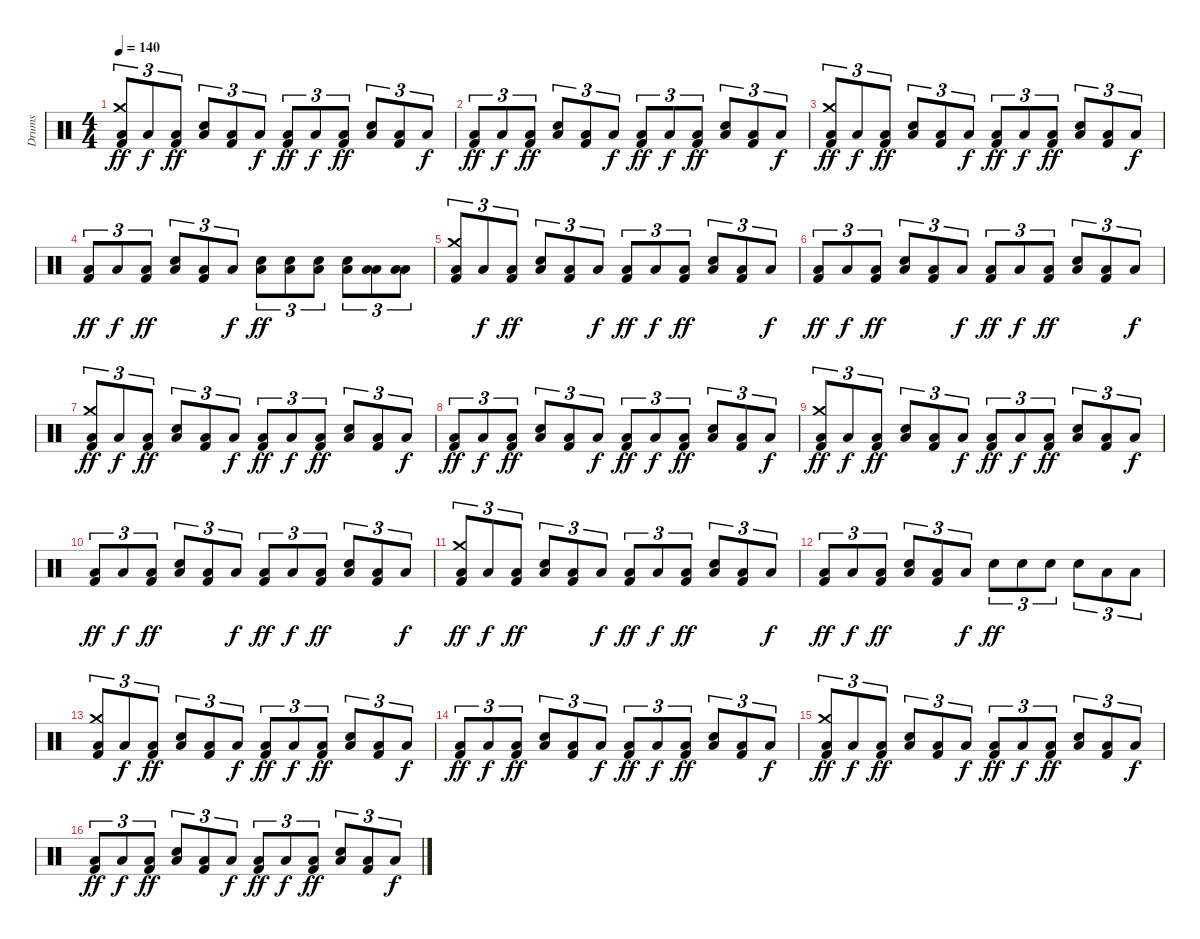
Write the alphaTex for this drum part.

\track ("Drums" "Drums") {instrument percussion}
\staff {score}
\articulation defaults
\ts (4 4)
\tempo 140
\clef neutral
\ks c
("Kick (hit) 2" "Crash medium (hit)" "Low Floor Tom (hit)").8{tu (3 2) dy ff} "Low Floor Tom (hit)".8{tu (3 2) dy f} ("Kick (hit) 2" "Low Floor Tom (hit)").8{tu (3 2) dy ff} ("Snare (hit) 2" "Low Floor Tom (hit)").8{tu (3 2)} ("Kick (hit) 2" "Low Floor Tom (hit)").8{tu (3 2)} "Low Floor Tom (hit)".8{tu (3 2) dy f} ("Kick (hit) 2" "Low Floor Tom (hit)").8{tu (3 2) dy ff} "Low Floor Tom (hit)".8{tu (3 2) dy f} ("Kick (hit) 2" "Low Floor Tom (hit)").8{tu (3 2) dy ff} ("Snare (hit) 2" "Low Floor Tom (hit)").8{tu (3 2)} ("Kick (hit) 2" "Low Floor Tom (hit)").8{tu (3 2)} "Low Floor Tom (hit)".8{tu (3 2) dy f} |
("Kick (hit) 2" "Low Floor Tom (hit)").8{tu (3 2) dy ff} "Low Floor Tom (hit)".8{tu (3 2) dy f} ("Kick (hit) 2" "Low Floor Tom (hit)").8{tu (3 2) dy ff} ("Snare (hit) 2" "Low Floor Tom (hit)").8{tu (3 2)} ("Kick (hit) 2" "Low Floor Tom (hit)").8{tu (3 2)} "Low Floor Tom (hit)".8{tu (3 2) dy f} ("Kick (hit) 2" "Low Floor Tom (hit)").8{tu (3 2) dy ff} "Low Floor Tom (hit)".8{tu (3 2) dy f} ("Kick (hit) 2" "Low Floor Tom (hit)").8{tu (3 2) dy ff} ("Snare (hit) 2" "Low Floor Tom (hit)").8{tu (3 2)} ("Kick (hit) 2" "Low Floor Tom (hit)").8{tu (3 2)} "Low Floor Tom (hit)".8{tu (3 2) dy f} |
("Kick (hit) 2" "Crash medium (hit)" "Low Floor Tom (hit)").8{tu (3 2) dy ff} "Low Floor Tom (hit)".8{tu (3 2) dy f} ("Kick (hit) 2" "Low Floor Tom (hit)").8{tu (3 2) dy ff} ("Snare (hit) 2" "Low Floor Tom (hit)").8{tu (3 2)} ("Kick (hit) 2" "Low Floor Tom (hit)").8{tu (3 2)} "Low Floor Tom (hit)".8{tu (3 2) dy f} ("Kick (hit) 2" "Low Floor Tom (hit)").8{tu (3 2) dy ff} "Low Floor Tom (hit)".8{tu (3 2) dy f} ("Kick (hit) 2" "Low Floor Tom (hit)").8{tu (3 2) dy ff} ("Snare (hit) 2" "Low Floor Tom (hit)").8{tu (3 2)} ("Kick (hit) 2" "Low Floor Tom (hit)").8{tu (3 2)} "Low Floor Tom (hit)".8{tu (3 2) dy f} |
("Kick (hit) 2" "Low Floor Tom (hit)").8{tu (3 2) dy ff} "Low Floor Tom (hit)".8{tu (3 2) dy f} ("Kick (hit) 2" "Low Floor Tom (hit)").8{tu (3 2) dy ff} ("Snare (hit) 2" "Low Floor Tom (hit)").8{tu (3 2)} ("Kick (hit) 2" "Low Floor Tom (hit)").8{tu (3 2)} "Low Floor Tom (hit)".8{tu (3 2) dy f} ("Snare (hit) 2" "Low Floor Tom (hit)").8{tu (3 2) dy ff} ("Snare (hit) 2" "Low Floor Tom (hit)").8{tu (3 2)} ("Snare (hit) 2" "Low Floor Tom (hit)").8{tu (3 2)} ("Snare (hit) 2" "Low Floor Tom (hit)").8{tu (3 2)} ("Low Tom (hit)" "Low Floor Tom (hit)").8{tu (3 2)} ("Low Floor Tom (hit)" "Low Floor Tom (hit)").8{tu (3 2)} |
("Kick (hit) 2" "Crash medium (hit)" "Low Floor Tom (hit)").8{tu (3 2)} "Low Floor Tom (hit)".8{tu (3 2) dy f} ("Kick (hit) 2" "Low Floor Tom (hit)").8{tu (3 2) dy ff} ("Snare (hit) 2" "Low Floor Tom (hit)").8{tu (3 2)} ("Kick (hit) 2" "Low Floor Tom (hit)").8{tu (3 2)} "Low Floor Tom (hit)".8{tu (3 2) dy f} ("Kick (hit) 2" "Low Floor Tom (hit)").8{tu (3 2) dy ff} "Low Floor Tom (hit)".8{tu (3 2) dy f} ("Kick (hit) 2" "Low Floor Tom (hit)").8{tu (3 2) dy ff} ("Snare (hit) 2" "Low Floor Tom (hit)").8{tu (3 2)} ("Kick (hit) 2" "Low Floor Tom (hit)").8{tu (3 2)} "Low Floor Tom (hit)".8{tu (3 2) dy f} |
("Kick (hit) 2" "Low Floor Tom (hit)").8{tu (3 2) dy ff} "Low Floor Tom (hit)".8{tu (3 2) dy f} ("Kick (hit) 2" "Low Floor Tom (hit)").8{tu (3 2) dy ff} ("Snare (hit) 2" "Low Floor Tom (hit)").8{tu (3 2)} ("Kick (hit) 2" "Low Floor Tom (hit)").8{tu (3 2)} "Low Floor Tom (hit)".8{tu (3 2) dy f} ("Kick (hit) 2" "Low Floor Tom (hit)").8{tu (3 2) dy ff} "Low Floor Tom (hit)".8{tu (3 2) dy f} ("Kick (hit) 2" "Low Floor Tom (hit)").8{tu (3 2) dy ff} ("Snare (hit) 2" "Low Floor Tom (hit)").8{tu (3 2)} ("Kick (hit) 2" "Low Floor Tom (hit)").8{tu (3 2)} "Low Floor Tom (hit)".8{tu (3 2) dy f} |
("Kick (hit) 2" "Crash medium (hit)" "Low Floor Tom (hit)").8{tu (3 2) dy ff} "Low Floor Tom (hit)".8{tu (3 2) dy f} ("Kick (hit) 2" "Low Floor Tom (hit)").8{tu (3 2) dy ff} ("Snare (hit) 2" "Low Floor Tom (hit)").8{tu (3 2)} ("Kick (hit) 2" "Low Floor Tom (hit)").8{tu (3 2)} "Low Floor Tom (hit)".8{tu (3 2) dy f} ("Kick (hit) 2" "Low Floor Tom (hit)").8{tu (3 2) dy ff} "Low Floor Tom (hit)".8{tu (3 2) dy f} ("Kick (hit) 2" "Low Floor Tom (hit)").8{tu (3 2) dy ff} ("Snare (hit) 2" "Low Floor Tom (hit)").8{tu (3 2)} ("Kick (hit) 2" "Low Floor Tom (hit)").8{tu (3 2)} "Low Floor Tom (hit)".8{tu (3 2) dy f} |
("Kick (hit) 2" "Low Floor Tom (hit)").8{tu (3 2) dy ff} "Low Floor Tom (hit)".8{tu (3 2) dy f} ("Kick (hit) 2" "Low Floor Tom (hit)").8{tu (3 2) dy ff} ("Snare (hit) 2" "Low Floor Tom (hit)").8{tu (3 2)} ("Kick (hit) 2" "Low Floor Tom (hit)").8{tu (3 2)} "Low Floor Tom (hit)".8{tu (3 2) dy f} ("Kick (hit) 2" "Low Floor Tom (hit)").8{tu (3 2) dy ff} "Low Floor Tom (hit)".8{tu (3 2) dy f} ("Kick (hit) 2" "Low Floor Tom (hit)").8{tu (3 2) dy ff} ("Snare (hit) 2" "Low Floor Tom (hit)").8{tu (3 2)} ("Kick (hit) 2" "Low Floor Tom (hit)").8{tu (3 2)} "Low Floor Tom (hit)".8{tu (3 2) dy f} |
("Kick (hit) 2" "Crash medium (hit)" "Low Floor Tom (hit)").8{tu (3 2) dy ff} "Low Floor Tom (hit)".8{tu (3 2) dy f} ("Kick (hit) 2" "Low Floor Tom (hit)").8{tu (3 2) dy ff} ("Snare (hit) 2" "Low Floor Tom (hit)").8{tu (3 2)} ("Kick (hit) 2" "Low Floor Tom (hit)").8{tu (3 2)} "Low Floor Tom (hit)".8{tu (3 2) dy f} ("Kick (hit) 2" "Low Floor Tom (hit)").8{tu (3 2) dy ff} "Low Floor Tom (hit)".8{tu (3 2) dy f} ("Kick (hit) 2" "Low Floor Tom (hit)").8{tu (3 2) dy ff} ("Snare (hit) 2" "Low Floor Tom (hit)").8{tu (3 2)} ("Kick (hit) 2" "Low Floor Tom (hit)").8{tu (3 2)} "Low Floor Tom (hit)".8{tu (3 2) dy f} |
("Kick (hit) 2" "Low Floor Tom (hit)").8{tu (3 2) dy ff} "Low Floor Tom (hit)".8{tu (3 2) dy f} ("Kick (hit) 2" "Low Floor Tom (hit)").8{tu (3 2) dy ff} ("Snare (hit) 2" "Low Floor Tom (hit)").8{tu (3 2)} ("Kick (hit) 2" "Low Floor Tom (hit)").8{tu (3 2)} "Low Floor Tom (hit)".8{tu (3 2) dy f} ("Kick (hit) 2" "Low Floor Tom (hit)").8{tu (3 2) dy ff} "Low Floor Tom (hit)".8{tu (3 2) dy f} ("Kick (hit) 2" "Low Floor Tom (hit)").8{tu (3 2) dy ff} ("Snare (hit) 2" "Low Floor Tom (hit)").8{tu (3 2)} ("Kick (hit) 2" "Low Floor Tom (hit)").8{tu (3 2)} "Low Floor Tom (hit)".8{tu (3 2) dy f} |
("Kick (hit) 2" "Crash medium (hit)" "Low Floor Tom (hit)").8{tu (3 2) dy ff} "Low Floor Tom (hit)".8{tu (3 2) dy f} ("Kick (hit) 2" "Low Floor Tom (hit)").8{tu (3 2) dy ff} ("Snare (hit) 2" "Low Floor Tom (hit)").8{tu (3 2)} ("Kick (hit) 2" "Low Floor Tom (hit)").8{tu (3 2)} "Low Floor Tom (hit)".8{tu (3 2) dy f} ("Kick (hit) 2" "Low Floor Tom (hit)").8{tu (3 2) dy ff} "Low Floor Tom (hit)".8{tu (3 2) dy f} ("Kick (hit) 2" "Low Floor Tom (hit)").8{tu (3 2) dy ff} ("Snare (hit) 2" "Low Floor Tom (hit)").8{tu (3 2)} ("Kick (hit) 2" "Low Floor Tom (hit)").8{tu (3 2)} "Low Floor Tom (hit)".8{tu (3 2) dy f} |
("Kick (hit) 2" "Low Floor Tom (hit)").8{tu (3 2) dy ff} "Low Floor Tom (hit)".8{tu (3 2) dy f} ("Kick (hit) 2" "Low Floor Tom (hit)").8{tu (3 2) dy ff} ("Snare (hit) 2" "Low Floor Tom (hit)").8{tu (3 2)} ("Kick (hit) 2" "Low Floor Tom (hit)").8{tu (3 2)} "Low Floor Tom (hit)".8{tu (3 2) dy f} "Snare (hit) 2".8{tu (3 2) dy ff} "Snare (hit) 2".8{tu (3 2)} "Snare (hit) 2".8{tu (3 2)} "Snare (hit) 2".8{tu (3 2)} "Low Tom (hit)".8{tu (3 2)} "Low Floor Tom (hit)".8{tu (3 2)} |
("Kick (hit) 2" "Crash medium (hit)" "Low Floor Tom (hit)").8{tu (3 2)} "Low Floor Tom (hit)".8{tu (3 2) dy f} ("Kick (hit) 2" "Low Floor Tom (hit)").8{tu (3 2) dy ff} ("Snare (hit) 2" "Low Floor Tom (hit)").8{tu (3 2)} ("Kick (hit) 2" "Low Floor Tom (hit)").8{tu (3 2)} "Low Floor Tom (hit)".8{tu (3 2) dy f} ("Kick (hit) 2" "Low Floor Tom (hit)").8{tu (3 2) dy ff} "Low Floor Tom (hit)".8{tu (3 2) dy f} ("Kick (hit) 2" "Low Floor Tom (hit)").8{tu (3 2) dy ff} ("Snare (hit) 2" "Low Floor Tom (hit)").8{tu (3 2)} ("Kick (hit) 2" "Low Floor Tom (hit)").8{tu (3 2)} "Low Floor Tom (hit)".8{tu (3 2) dy f} |
("Kick (hit) 2" "Low Floor Tom (hit)").8{tu (3 2) dy ff} "Low Floor Tom (hit)".8{tu (3 2) dy f} ("Kick (hit) 2" "Low Floor Tom (hit)").8{tu (3 2) dy ff} ("Snare (hit) 2" "Low Floor Tom (hit)").8{tu (3 2)} ("Kick (hit) 2" "Low Floor Tom (hit)").8{tu (3 2)} "Low Floor Tom (hit)".8{tu (3 2) dy f} ("Kick (hit) 2" "Low Floor Tom (hit)").8{tu (3 2) dy ff} "Low Floor Tom (hit)".8{tu (3 2) dy f} ("Kick (hit) 2" "Low Floor Tom (hit)").8{tu (3 2) dy ff} ("Snare (hit) 2" "Low Floor Tom (hit)").8{tu (3 2)} ("Kick (hit) 2" "Low Floor Tom (hit)").8{tu (3 2)} "Low Floor Tom (hit)".8{tu (3 2) dy f} |
("Kick (hit) 2" "Crash medium (hit)" "Low Floor Tom (hit)").8{tu (3 2) dy ff} "Low Floor Tom (hit)".8{tu (3 2) dy f} ("Kick (hit) 2" "Low Floor Tom (hit)").8{tu (3 2) dy ff} ("Snare (hit) 2" "Low Floor Tom (hit)").8{tu (3 2)} ("Kick (hit) 2" "Low Floor Tom (hit)").8{tu (3 2)} "Low Floor Tom (hit)".8{tu (3 2) dy f} ("Kick (hit) 2" "Low Floor Tom (hit)").8{tu (3 2) dy ff} "Low Floor Tom (hit)".8{tu (3 2) dy f} ("Kick (hit) 2" "Low Floor Tom (hit)").8{tu (3 2) dy ff} ("Snare (hit) 2" "Low Floor Tom (hit)").8{tu (3 2)} ("Kick (hit) 2" "Low Floor Tom (hit)").8{tu (3 2)} "Low Floor Tom (hit)".8{tu (3 2) dy f} |
("Kick (hit) 2" "Low Floor Tom (hit)").8{tu (3 2) dy ff} "Low Floor Tom (hit)".8{tu (3 2) dy f} ("Kick (hit) 2" "Low Floor Tom (hit)").8{tu (3 2) dy ff} ("Snare (hit) 2" "Low Floor Tom (hit)").8{tu (3 2)} ("Kick (hit) 2" "Low Floor Tom (hit)").8{tu (3 2)} "Low Floor Tom (hit)".8{tu (3 2) dy f} ("Kick (hit) 2" "Low Floor Tom (hit)").8{tu (3 2) dy ff} "Low Floor Tom (hit)".8{tu (3 2) dy f} ("Kick (hit) 2" "Low Floor Tom (hit)").8{tu (3 2) dy ff} ("Snare (hit) 2" "Low Floor Tom (hit)").8{tu (3 2)} ("Kick (hit) 2" "Low Floor Tom (hit)").8{tu (3 2)} "Low Floor Tom (hit)".8{tu (3 2) dy f}
